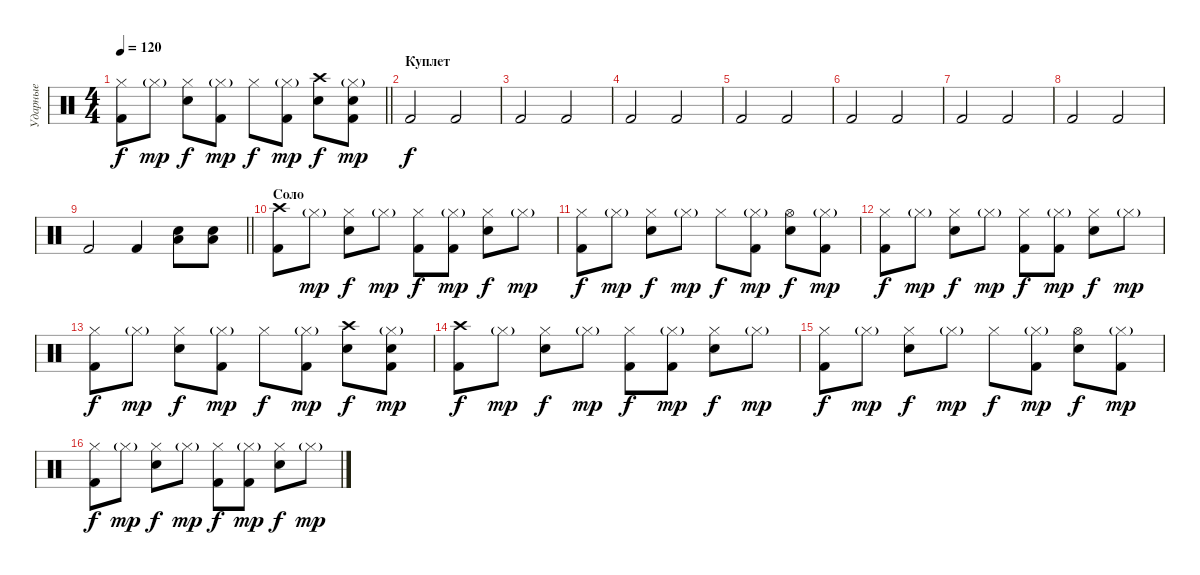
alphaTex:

\track ("Ударные" "Ударные") {instrument percussion}
\staff {score}
\articulation defaults
\ts (4 4)
\tempo 120
\clef neutral
\barLineRight lightlight
\ks c
("Hi-Hat (closed)" "Kick (hit) 2").8{dy f} "Hi-Hat (closed)"{g}.8{dy mp} ("Hi-Hat (closed)" "Electric Snare (hit)").8{dy f} ("Hi-Hat (closed)"{g} "Kick (hit) 2").8{dy mp} "Hi-Hat (closed)".8{dy f} ("Hi-Hat (closed)"{g} "Kick (hit) 2").8{dy mp} ("Crash high (hit)" "Electric Snare (hit)").8{dy f} ("Hi-Hat (closed)"{g} "Kick (hit) 2" "Electric Snare (hit)").8{dy mp} |
\section ("" "Куплет")
"Kick (hit) 2".2{dy f} "Kick (hit) 2".2 |
"Kick (hit) 2".2 "Kick (hit) 2".2 |
"Kick (hit) 2".2 "Kick (hit) 2".2 |
"Kick (hit) 2".2 "Kick (hit) 2".2 |
"Kick (hit) 2".2 "Kick (hit) 2".2 |
"Kick (hit) 2".2 "Kick (hit) 2".2 |
"Kick (hit) 2".2 "Kick (hit) 2".2 |
\barLineRight lightlight "Kick (hit) 2".2 "Kick (hit) 2".4
("Electric Snare (hit)" "Low Floor Tom (hit)").8 ("Electric Snare (hit)" "Low Floor Tom (hit)").8 |
\section ("" "Соло")
("Crash high (hit)" "Kick (hit) 2").8 "Hi-Hat (closed)"{g}.8{dy mp} ("Hi-Hat (closed)" "Electric Snare (hit)").8{dy f} "Hi-Hat (closed)"{g}.8{dy mp} ("Hi-Hat (closed)" "Kick (hit) 2").8{dy f} ("Hi-Hat (closed)"{g} "Kick (hit) 2").8{dy mp} ("Hi-Hat (closed)" "Electric Snare (hit)").8{dy f} "Hi-Hat (closed)"{g}.8{dy mp} |
("Hi-Hat (closed)" "Kick (hit) 2").8{dy f} "Hi-Hat (closed)"{g}.8{dy mp} ("Hi-Hat (closed)" "Electric Snare (hit)").8{dy f} "Hi-Hat (closed)"{g}.8{dy mp} "Hi-Hat (closed)".8{dy f} ("Hi-Hat (closed)"{g} "Kick (hit) 2").8{dy mp} ("Hi-Hat (open)" "Electric Snare (hit)").8{dy f} ("Hi-Hat (closed)"{g} "Kick (hit) 2").8{dy mp} |
("Hi-Hat (closed)" "Kick (hit) 2").8{dy f} "Hi-Hat (closed)"{g}.8{dy mp} ("Hi-Hat (closed)" "Electric Snare (hit)").8{dy f} "Hi-Hat (closed)"{g}.8{dy mp} ("Hi-Hat (closed)" "Kick (hit) 2").8{dy f} ("Hi-Hat (closed)"{g} "Kick (hit) 2").8{dy mp} ("Hi-Hat (closed)" "Electric Snare (hit)").8{dy f} "Hi-Hat (closed)"{g}.8{dy mp} |
("Hi-Hat (closed)" "Kick (hit) 2").8{dy f} "Hi-Hat (closed)"{g}.8{dy mp} ("Hi-Hat (closed)" "Electric Snare (hit)").8{dy f} ("Hi-Hat (closed)"{g} "Kick (hit) 2").8{dy mp} "Hi-Hat (closed)".8{dy f} ("Hi-Hat (closed)"{g} "Kick (hit) 2").8{dy mp} ("Crash high (hit)" "Electric Snare (hit)").8{dy f} ("Hi-Hat (closed)"{g} "Kick (hit) 2" "Electric Snare (hit)").8{dy mp} |
("Crash high (hit)" "Kick (hit) 2").8{dy f} "Hi-Hat (closed)"{g}.8{dy mp} ("Hi-Hat (closed)" "Electric Snare (hit)").8{dy f} "Hi-Hat (closed)"{g}.8{dy mp} ("Hi-Hat (closed)" "Kick (hit) 2").8{dy f} ("Hi-Hat (closed)"{g} "Kick (hit) 2").8{dy mp} ("Hi-Hat (closed)" "Electric Snare (hit)").8{dy f} "Hi-Hat (closed)"{g}.8{dy mp} |
("Hi-Hat (closed)" "Kick (hit) 2").8{dy f} "Hi-Hat (closed)"{g}.8{dy mp} ("Hi-Hat (closed)" "Electric Snare (hit)").8{dy f} "Hi-Hat (closed)"{g}.8{dy mp} "Hi-Hat (closed)".8{dy f} ("Hi-Hat (closed)"{g} "Kick (hit) 2").8{dy mp} ("Hi-Hat (open)" "Electric Snare (hit)").8{dy f} ("Hi-Hat (closed)"{g} "Kick (hit) 2").8{dy mp} |
("Hi-Hat (closed)" "Kick (hit) 2").8{dy f} "Hi-Hat (closed)"{g}.8{dy mp} ("Hi-Hat (closed)" "Electric Snare (hit)").8{dy f} "Hi-Hat (closed)"{g}.8{dy mp} ("Hi-Hat (closed)" "Kick (hit) 2").8{dy f} ("Hi-Hat (closed)"{g} "Kick (hit) 2").8{dy mp} ("Hi-Hat (closed)" "Electric Snare (hit)").8{dy f} "Hi-Hat (closed)"{g}.8{dy mp}
